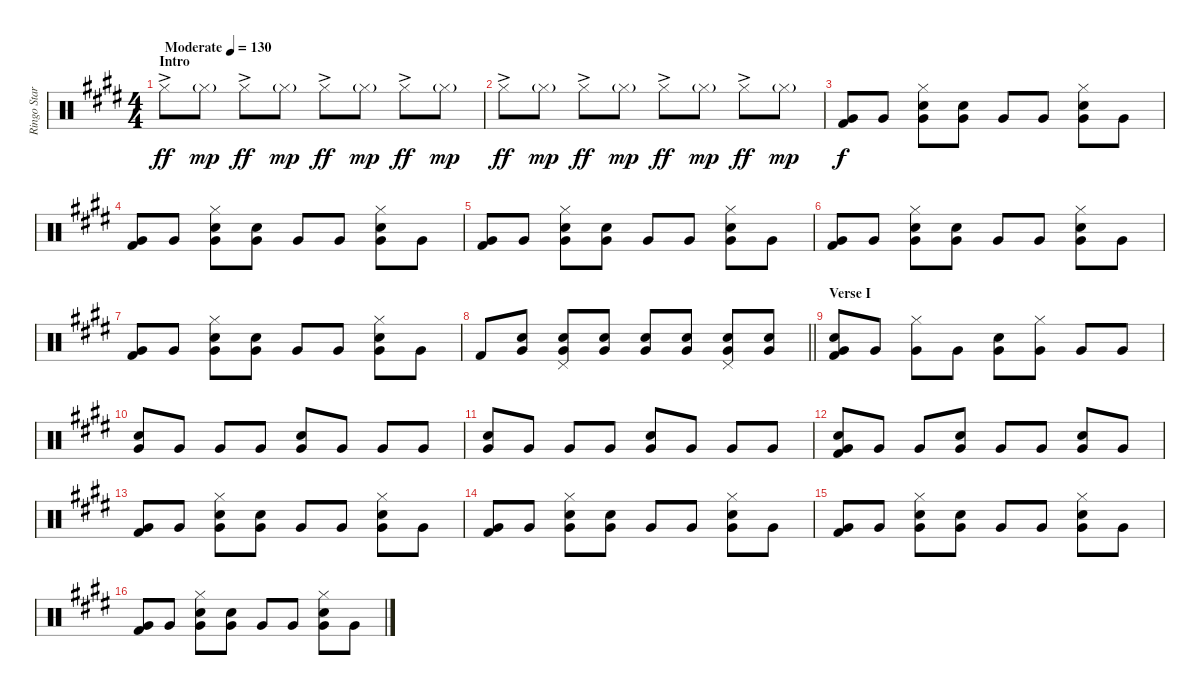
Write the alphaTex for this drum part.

\track ("Ringo Starr Drums" "Ringo Star") {instrument percussion}
\staff {score}
\articulation defaults
\ts (4 4)
\section ("" "Intro")
\tempo (130 "Moderate")
\clef neutral
\ks e "Hi-Hat (closed)"{ac}.8{dy ff} "Hi-Hat (closed)"{g}.8{dy mp} "Hi-Hat (closed)"{ac}.8{dy ff} "Hi-Hat (closed)"{g}.8{dy mp} "Hi-Hat (closed)"{ac}.8{dy ff} "Hi-Hat (closed)"{g}.8{dy mp} "Hi-Hat (closed)"{ac}.8{dy ff} "Hi-Hat (closed)"{g}.8{dy mp}
|
"Hi-Hat (closed)"{ac}.8{dy ff} "Hi-Hat (closed)"{g}.8{dy mp} "Hi-Hat (closed)"{ac}.8{dy ff} "Hi-Hat (closed)"{g}.8{dy mp} "Hi-Hat (closed)"{ac}.8{dy ff} "Hi-Hat (closed)"{g}.8{dy mp} "Hi-Hat (closed)"{ac}.8{dy ff} "Hi-Hat (closed)"{g}.8{dy mp} |
("Very Low Tom (hit)" "Kick (hit) 2").8{dy f} "Very Low Tom (hit)".8 ("Hi-Hat (closed)" "Very Low Tom (hit)" "Snare (hit) 2").8 ("Very Low Tom (hit)" "Snare (hit) 2").8 "Very Low Tom (hit)".8 "Very Low Tom (hit)".8 ("Hi-Hat (closed)" "Very Low Tom (hit)" "Snare (hit) 2").8 "Very Low Tom (hit)".8 |
("Very Low Tom (hit)" "Kick (hit) 2").8 "Very Low Tom (hit)".8 ("Hi-Hat (closed)" "Very Low Tom (hit)" "Snare (hit) 2").8 ("Very Low Tom (hit)" "Snare (hit) 2").8 "Very Low Tom (hit)".8 "Very Low Tom (hit)".8 ("Hi-Hat (closed)" "Very Low Tom (hit)" "Snare (hit) 2").8 "Very Low Tom (hit)".8 |
("Very Low Tom (hit)" "Kick (hit) 2").8 "Very Low Tom (hit)".8 ("Hi-Hat (closed)" "Very Low Tom (hit)" "Snare (hit) 2").8 ("Very Low Tom (hit)" "Snare (hit) 2").8 "Very Low Tom (hit)".8 "Very Low Tom (hit)".8 ("Hi-Hat (closed)" "Very Low Tom (hit)" "Snare (hit) 2").8 "Very Low Tom (hit)".8 |
("Very Low Tom (hit)" "Kick (hit) 2").8 "Very Low Tom (hit)".8 ("Hi-Hat (closed)" "Very Low Tom (hit)" "Snare (hit) 2").8 ("Very Low Tom (hit)" "Snare (hit) 2").8 "Very Low Tom (hit)".8 "Very Low Tom (hit)".8 ("Hi-Hat (closed)" "Very Low Tom (hit)" "Snare (hit) 2").8 "Very Low Tom (hit)".8 |
("Very Low Tom (hit)" "Kick (hit) 2").8 "Very Low Tom (hit)".8 ("Hi-Hat (closed)" "Very Low Tom (hit)" "Snare (hit) 2").8 ("Very Low Tom (hit)" "Snare (hit) 2").8 "Very Low Tom (hit)".8 "Very Low Tom (hit)".8 ("Hi-Hat (closed)" "Very Low Tom (hit)" "Snare (hit) 2").8 "Very Low Tom (hit)".8 |
\barLineRight lightlight "Kick (hit) 2".8
("Very Low Tom (hit)" "Snare (hit) 2").8 ("Pedal Hi-Hat (hit)" "Very Low Tom (hit)" "Snare (hit) 2").8 ("Very Low Tom (hit)" "Snare (hit) 2").8 ("Very Low Tom (hit)" "Snare (hit) 2").8 ("Very Low Tom (hit)" "Snare (hit) 2").8 ("Pedal Hi-Hat (hit)" "Very Low Tom (hit)" "Snare (hit) 2").8 ("Very Low Tom (hit)" "Snare (hit) 2").8 |
\section ("" "Verse I")
("Very Low Tom (hit)" "Snare (hit) 2" "Kick (hit) 2").8 "Very Low Tom (hit)".8 ("Hi-Hat (closed)" "Very Low Tom (hit)").8 "Very Low Tom (hit)".8 ("Very Low Tom (hit)" "Snare (hit) 2").8 ("Hi-Hat (closed)" "Very Low Tom (hit)").8 "Very Low Tom (hit)".8 "Very Low Tom (hit)".8 |
("Very Low Tom (hit)" "Snare (hit) 2").8 "Very Low Tom (hit)".8 "Very Low Tom (hit)".8 "Very Low Tom (hit)".8 ("Very Low Tom (hit)" "Snare (hit) 2").8 "Very Low Tom (hit)".8 "Very Low Tom (hit)".8 "Very Low Tom (hit)".8 |
("Very Low Tom (hit)" "Snare (hit) 2").8 "Very Low Tom (hit)".8 "Very Low Tom (hit)".8 "Very Low Tom (hit)".8 ("Very Low Tom (hit)" "Snare (hit) 2").8 "Very Low Tom (hit)".8 "Very Low Tom (hit)".8 "Very Low Tom (hit)".8 |
("Very Low Tom (hit)" "Snare (hit) 2" "Kick (hit) 2").8 "Very Low Tom (hit)".8 "Very Low Tom (hit)".8 ("Very Low Tom (hit)" "Snare (hit) 2").8 "Very Low Tom (hit)".8 "Very Low Tom (hit)".8 ("Very Low Tom (hit)" "Snare (hit) 2").8 "Very Low Tom (hit)".8 |
("Very Low Tom (hit)" "Kick (hit) 2").8 "Very Low Tom (hit)".8 ("Hi-Hat (closed)" "Very Low Tom (hit)" "Snare (hit) 2").8 ("Very Low Tom (hit)" "Snare (hit) 2").8 "Very Low Tom (hit)".8 "Very Low Tom (hit)".8 ("Hi-Hat (closed)" "Very Low Tom (hit)" "Snare (hit) 2").8 "Very Low Tom (hit)".8 |
("Very Low Tom (hit)" "Kick (hit) 2").8 "Very Low Tom (hit)".8 ("Hi-Hat (closed)" "Very Low Tom (hit)" "Snare (hit) 2").8 ("Very Low Tom (hit)" "Snare (hit) 2").8 "Very Low Tom (hit)".8 "Very Low Tom (hit)".8 ("Hi-Hat (closed)" "Very Low Tom (hit)" "Snare (hit) 2").8 "Very Low Tom (hit)".8 |
("Very Low Tom (hit)" "Kick (hit) 2").8 "Very Low Tom (hit)".8 ("Hi-Hat (closed)" "Very Low Tom (hit)" "Snare (hit) 2").8 ("Very Low Tom (hit)" "Snare (hit) 2").8 "Very Low Tom (hit)".8 "Very Low Tom (hit)".8 ("Hi-Hat (closed)" "Very Low Tom (hit)" "Snare (hit) 2").8 "Very Low Tom (hit)".8 |
("Very Low Tom (hit)" "Kick (hit) 2").8 "Very Low Tom (hit)".8 ("Hi-Hat (closed)" "Very Low Tom (hit)" "Snare (hit) 2").8 ("Very Low Tom (hit)" "Snare (hit) 2").8 "Very Low Tom (hit)".8 "Very Low Tom (hit)".8 ("Hi-Hat (closed)" "Very Low Tom (hit)" "Snare (hit) 2").8 "Very Low Tom (hit)".8
